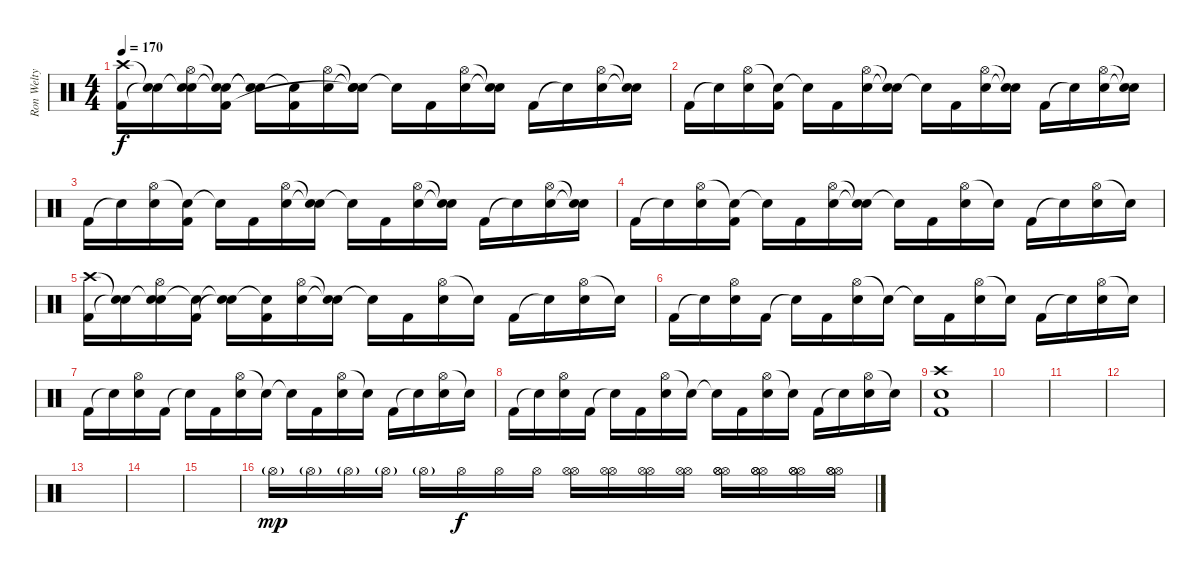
\track ("Ron Welty" "Ron Welty") {instrument percussion}
\staff {score}
\articulation defaults
\ts (4 4)
\tempo 170
\clef neutral
\ks c
("Crash high (hit)" "Kick (hit) 2").16{dy f} ("Snare (hit)"{t} "Snare (hit)"{t}).16 ("Snare (hit)"{t} "Hi-Hat (open)" "Electric Snare (hit)").16 ("Snare (hit)"{t} "Snare (hit)"{t} "Kick (hit) 2").16 ("Snare (hit)"{t} "Snare (hit)"{t}).16 ("Snare (hit)"{t} "Kick (hit) 2").16 ("Hi-Hat (open)" "Electric Snare (hit)").16 ("Snare (hit)"{t} "Snare (hit)"{t} "Snare (hit)"{t}).16 "Snare (hit)"{t}.16 "Kick (hit) 2".16 ("Hi-Hat (open)" "Electric Snare (hit)").16 ("Snare (hit)"{t} "Snare (hit)"{t}).16 "Kick (hit) 2".16 "Snare (hit)"{t}.16 ("Hi-Hat (open)" "Electric Snare (hit)").16 ("Snare (hit)"{t} "Snare (hit)"{t}).16 |
"Kick (hit) 2".16 "Snare (hit)"{t}.16 ("Hi-Hat (open)" "Electric Snare (hit)").16 ("Snare (hit)"{t} "Kick (hit) 2").16 "Snare (hit)"{t}.16 "Kick (hit) 2".16 ("Hi-Hat (open)" "Electric Snare (hit)").16 ("Snare (hit)"{t} "Snare (hit)"{t}).16 "Snare (hit)"{t}.16 "Kick (hit) 2".16 ("Hi-Hat (open)" "Electric Snare (hit)").16 ("Snare (hit)"{t} "Snare (hit)"{t}).16 "Kick (hit) 2".16 "Snare (hit)"{t}.16 ("Hi-Hat (open)" "Electric Snare (hit)").16 ("Snare (hit)"{t} "Snare (hit)"{t}).16 |
"Kick (hit) 2".16 "Snare (hit)"{t}.16 ("Hi-Hat (open)" "Electric Snare (hit)").16 ("Snare (hit)"{t} "Kick (hit) 2").16 "Snare (hit)"{t}.16 "Kick (hit) 2".16 ("Hi-Hat (open)" "Electric Snare (hit)").16 ("Snare (hit)"{t} "Snare (hit)"{t}).16 "Snare (hit)"{t}.16 "Kick (hit) 2".16 ("Hi-Hat (open)" "Electric Snare (hit)").16 ("Snare (hit)"{t} "Snare (hit)"{t}).16 "Kick (hit) 2".16 "Snare (hit)"{t}.16 ("Hi-Hat (open)" "Electric Snare (hit)").16 ("Snare (hit)"{t} "Snare (hit)"{t}).16 |
"Kick (hit) 2".16 "Snare (hit)"{t}.16 ("Hi-Hat (open)" "Electric Snare (hit)").16 ("Snare (hit)"{t} "Kick (hit) 2").16 "Snare (hit)"{t}.16 "Kick (hit) 2".16 ("Hi-Hat (open)" "Electric Snare (hit)").16 ("Snare (hit)"{t} "Snare (hit)"{t}).16 "Snare (hit)"{t}.16 "Kick (hit) 2".16 ("Hi-Hat (open)" "Electric Snare (hit)").16 "Electric Snare (hit)"{t}.16 "Kick (hit) 2".16 "Snare (hit)"{t}.16 ("Hi-Hat (open)" "Electric Snare (hit)").16 "Electric Snare (hit)"{t}.16 |
("Crash high (hit)" "Kick (hit) 2").16 ("Snare (hit)"{t} "Snare (hit)"{t}).16 ("Snare (hit)"{t} "Hi-Hat (open)" "Electric Snare (hit)").16 ("Snare (hit)"{t} "Kick (hit) 2").16 ("Snare (hit)"{t} "Snare (hit)"{t}).16 ("Snare (hit)"{t} "Kick (hit) 2").16 ("Hi-Hat (open)" "Electric Snare (hit)").16 ("Snare (hit)"{t} "Snare (hit)"{t}).16 "Snare (hit)"{t}.16 "Kick (hit) 2".16 ("Hi-Hat (open)" "Electric Snare (hit)").16 "Snare (hit)"{t}.16 "Kick (hit) 2".16 "Snare (hit)"{t}.16 ("Hi-Hat (open)" "Electric Snare (hit)").16 "Snare (hit)"{t}.16 |
"Kick (hit) 2".16 "Snare (hit)"{t}.16 ("Hi-Hat (open)" "Electric Snare (hit)").16 "Kick (hit) 2".16 "Snare (hit)"{t}.16 "Kick (hit) 2".16 ("Hi-Hat (open)" "Electric Snare (hit)").16 "Snare (hit)"{t}.16 "Snare (hit)"{t}.16 "Kick (hit) 2".16 ("Hi-Hat (open)" "Electric Snare (hit)").16 "Snare (hit)"{t}.16 "Kick (hit) 2".16 "Snare (hit)"{t}.16 ("Hi-Hat (open)" "Electric Snare (hit)").16 "Snare (hit)"{t}.16 |
"Kick (hit) 2".16 "Snare (hit)"{t}.16 ("Hi-Hat (open)" "Electric Snare (hit)").16 "Kick (hit) 2".16 "Snare (hit)"{t}.16 "Kick (hit) 2".16 ("Hi-Hat (open)" "Electric Snare (hit)").16 "Snare (hit)"{t}.16 "Snare (hit)"{t}.16 "Kick (hit) 2".16 ("Hi-Hat (open)" "Electric Snare (hit)").16 "Snare (hit)"{t}.16 "Kick (hit) 2".16 "Snare (hit)"{t}.16 ("Hi-Hat (open)" "Electric Snare (hit)").16 "Snare (hit)"{t}.16 |
"Kick (hit) 2".16 "Snare (hit)"{t}.16 ("Hi-Hat (open)" "Electric Snare (hit)").16 "Kick (hit) 2".16 "Snare (hit)"{t}.16 "Kick (hit) 2".16 ("Hi-Hat (open)" "Electric Snare (hit)").16 "Snare (hit)"{t}.16 "Snare (hit)"{t}.16 "Kick (hit) 2".16 ("Hi-Hat (open)" "Electric Snare (hit)").16 "Snare (hit)"{t}.16 "Kick (hit) 2".16 "Snare (hit)"{t}.16 ("Hi-Hat (open)" "Electric Snare (hit)").16 "Snare (hit)"{t}.16 |
("Crash high (hit)" "Electric Snare (hit)" "Kick (hit) 2").1 |
|
|
|
|
|
|
"Hi-Hat (open)"{g}.16{dy mp} "Hi-Hat (open)"{g}.16 "Hi-Hat (open)"{g}.16 "Hi-Hat (open)"{g}.16 "Hi-Hat (open)"{g}.16 "Hi-Hat (open)".16{dy f} "Hi-Hat (open)".16 "Hi-Hat (open)".16 ("Hi-Hat (open)" "Hi-Hat (open)").16 ("Hi-Hat (open)" "Hi-Hat (open)").16 ("Hi-Hat (open)" "Hi-Hat (open)").16 ("Hi-Hat (open)" "Hi-Hat (open)").16 ("Hi-Hat (open)" "Hi-Hat (open)" "Hi-Hat (open)").16 ("Hi-Hat (open)" "Hi-Hat (open)" "Hi-Hat (open)").16 ("Hi-Hat (open)" "Hi-Hat (open)" "Hi-Hat (open)").16 ("Hi-Hat (open)" "Hi-Hat (open)" "Hi-Hat (open)").16
